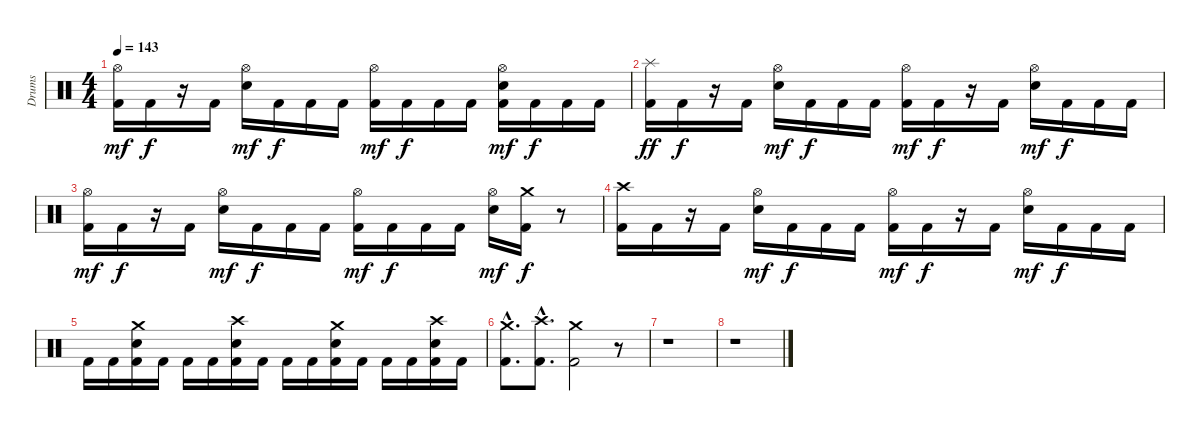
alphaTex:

\track ("Drums" "Drums") {instrument percussion}
\staff {score}
\articulation defaults
\ts (4 4)
\tempo 143
\clef neutral
\ks c
("Hi-Hat (open)" "Kick (hit) 2").16{dy mf} "Kick (hit) 2".16{dy f} r.16 "Kick (hit) 2".16 ("Hi-Hat (open)" "Electric Snare (hit)").16{dy mf} "Kick (hit) 2".16{dy f} "Kick (hit) 2".16 "Kick (hit) 2".16 ("Hi-Hat (open)" "Kick (hit) 2").16{dy mf} "Kick (hit) 2".16{dy f} "Kick (hit) 2".16 "Kick (hit) 2".16 ("Hi-Hat (open)" "Electric Snare (hit)" "Kick (hit) 2").16{dy mf} "Kick (hit) 2".16{dy f} "Kick (hit) 2".16 "Kick (hit) 2".16 |
("Splash (hit)" "Kick (hit) 2").16{dy ff} "Kick (hit) 2".16{dy f} r.16 "Kick (hit) 2".16 ("Hi-Hat (open)" "Electric Snare (hit)").16{dy mf} "Kick (hit) 2".16{dy f} "Kick (hit) 2".16 "Kick (hit) 2".16 ("Hi-Hat (open)" "Kick (hit) 2").16{dy mf} "Kick (hit) 2".16{dy f} r.16 "Kick (hit) 2".16 ("Hi-Hat (open)" "Electric Snare (hit)").16{dy mf} "Kick (hit) 2".16{dy f} "Kick (hit) 2".16 "Kick (hit) 2".16 |
("Hi-Hat (open)" "Kick (hit) 2").16{dy mf} "Kick (hit) 2".16{dy f} r.16 "Kick (hit) 2".16 ("Hi-Hat (open)" "Electric Snare (hit)").16{dy mf} "Kick (hit) 2".16{dy f} "Kick (hit) 2".16 "Kick (hit) 2".16 ("Hi-Hat (open)" "Kick (hit) 2").16{dy mf} "Kick (hit) 2".16{dy f} "Kick (hit) 2".16 "Kick (hit) 2".16 ("Hi-Hat (open)" "Electric Snare (hit)").16{dy mf} ("Crash medium (hit)" "Kick (hit) 2").16{dy f} r.8 |
("Crash high (hit)" "Kick (hit) 2").16 "Kick (hit) 2".16 r.16 "Kick (hit) 2".16 ("Hi-Hat (open)" "Electric Snare (hit)").16{dy mf} "Kick (hit) 2".16{dy f} "Kick (hit) 2".16 "Kick (hit) 2".16 ("Hi-Hat (open)" "Kick (hit) 2").16{dy mf} "Kick (hit) 2".16{dy f} r.16 "Kick (hit) 2".16 ("Hi-Hat (open)" "Electric Snare (hit)").16{dy mf} "Kick (hit) 2".16{dy f} "Kick (hit) 2".16 "Kick (hit) 2".16 |
"Kick (hit) 2".16 "Kick (hit) 2".16 ("Crash medium (hit)" "Electric Snare (hit)" "Kick (hit) 2").16 "Kick (hit) 2".16 "Kick (hit) 2".16 "Kick (hit) 2".16 ("Crash high (hit)" "Electric Snare (hit)" "Kick (hit) 2").16 "Kick (hit) 2".16 "Kick (hit) 2".16 "Kick (hit) 2".16 ("Crash medium (hit)" "Electric Snare (hit)" "Kick (hit) 2").16 "Kick (hit) 2".16 "Kick (hit) 2".16 "Kick (hit) 2".16 ("Crash high (hit)" "Electric Snare (hit)" "Kick (hit) 2").16 "Kick (hit) 2".16 |
("Crash medium (hit)"{hac} "Kick (hit) 2"{hac}).8{d} ("Crash high (hit)"{hac} "Kick (hit) 2"{hac}).8{d} ("Crash medium (hit)" "Kick (hit) 2").2 r.8 |
r.1 |
r.1
